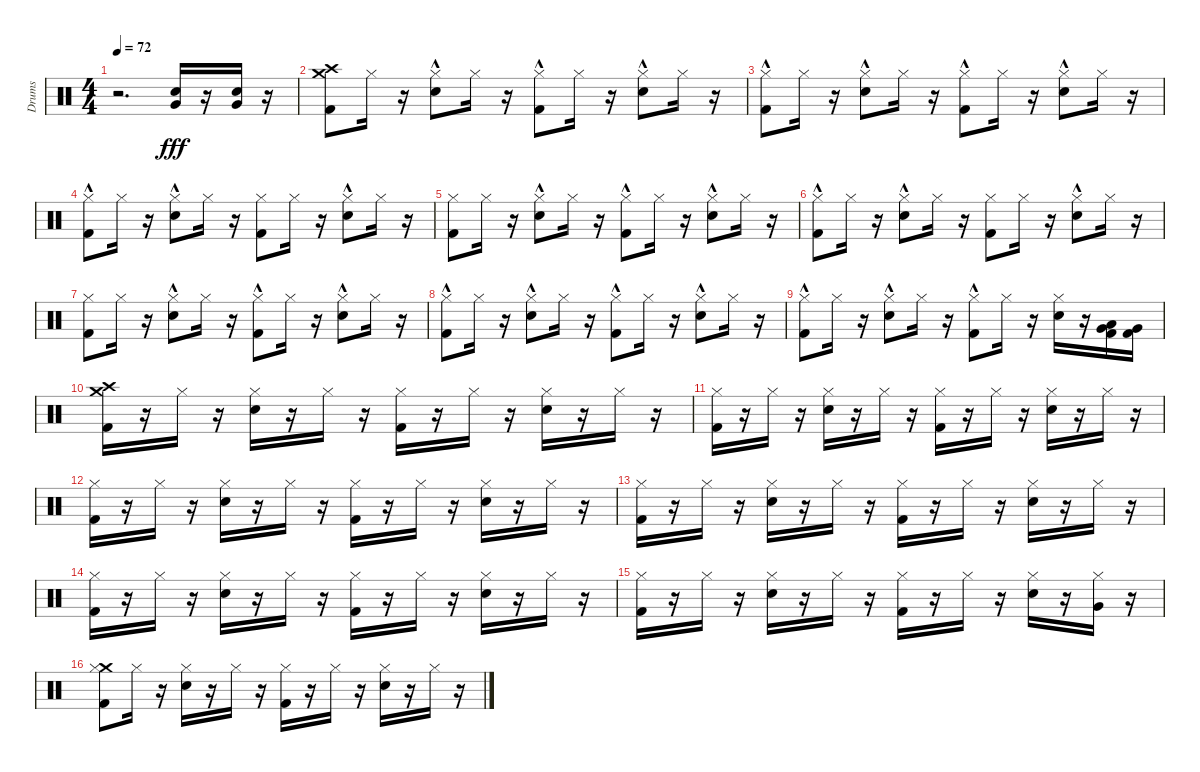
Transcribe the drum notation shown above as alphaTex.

\track ("Drums" "Drums") {instrument percussion}
\staff {score}
\articulation defaults
\ts (4 4)
\tempo 72
\clef neutral
\ks c
r.2{d dy fff} ("Very Low Tom (hit)" "Snare (hit) 2").16 r.16 ("Very Low Tom (hit)" "Snare (hit) 2").16 r.16 |
("Crash high (hit)" "Kick (hit) 2" "Crash medium (hit)").8 "Hi-Hat (closed)".16 r.16 ("Hi-Hat (closed)" "Snare (hit) 2"{hac}).8 "Hi-Hat (closed)".16 r.16 ("Kick (hit) 2"{hac} "Hi-Hat (closed)").8 "Hi-Hat (closed)".16 r.16 ("Snare (hit) 2"{hac} "Hi-Hat (closed)").8 "Hi-Hat (closed)".16 r.16 |
("Hi-Hat (closed)" "Kick (hit) 2"{hac}).8 "Hi-Hat (closed)".16 r.16 ("Hi-Hat (closed)" "Snare (hit) 2"{hac}).8 "Hi-Hat (closed)".16 r.16 ("Kick (hit) 2"{hac} "Hi-Hat (closed)").8 "Hi-Hat (closed)".16 r.16 ("Snare (hit) 2"{hac} "Hi-Hat (closed)").8 "Hi-Hat (closed)".16 r.16 |
("Hi-Hat (closed)" "Kick (hit) 2"{hac}).8 "Hi-Hat (closed)".16 r.16 ("Snare (hit) 2"{hac} "Hi-Hat (closed)").8 "Hi-Hat (closed)".16 r.16 ("Hi-Hat (closed)" "Kick (hit) 2").8 "Hi-Hat (closed)".16 r.16 ("Snare (hit) 2"{hac} "Hi-Hat (closed)").8 "Hi-Hat (closed)".16 r.16 |
("Hi-Hat (closed)" "Kick (hit) 2").8 "Hi-Hat (closed)".16 r.16 ("Hi-Hat (closed)" "Snare (hit) 2"{hac}).8 "Hi-Hat (closed)".16 r.16 ("Hi-Hat (closed)" "Kick (hit) 2"{hac}).8 "Hi-Hat (closed)".16 r.16 ("Hi-Hat (closed)" "Snare (hit) 2"{hac}).8 "Hi-Hat (closed)".16 r.16 |
("Kick (hit) 2"{hac} "Hi-Hat (closed)").8 "Hi-Hat (closed)".16 r.16 ("Hi-Hat (closed)" "Snare (hit) 2"{hac}).8 "Hi-Hat (closed)".16 r.16 ("Kick (hit) 2" "Hi-Hat (closed)").8 "Hi-Hat (closed)".16 r.16 ("Snare (hit) 2"{hac} "Hi-Hat (closed)").8 "Hi-Hat (closed)".16 r.16 |
("Hi-Hat (closed)" "Kick (hit) 2").8 "Hi-Hat (closed)".16 r.16 ("Snare (hit) 2"{hac} "Hi-Hat (closed)").8 "Hi-Hat (closed)".16 r.16 ("Hi-Hat (closed)" "Kick (hit) 2"{hac}).8 "Hi-Hat (closed)".16 r.16 ("Hi-Hat (closed)" "Snare (hit) 2"{hac}).8 "Hi-Hat (closed)".16 r.16 |
("Kick (hit) 2"{hac} "Hi-Hat (closed)").8 "Hi-Hat (closed)".16 r.16 ("Hi-Hat (closed)" "Snare (hit) 2"{hac}).8 "Hi-Hat (closed)".16 r.16 ("Hi-Hat (closed)" "Kick (hit) 2"{hac}).8 "Hi-Hat (closed)".16 r.16 ("Hi-Hat (closed)" "Snare (hit) 2"{hac}).8 "Hi-Hat (closed)".16 r.16 |
("Hi-Hat (closed)" "Kick (hit) 2"{hac}).8 "Hi-Hat (closed)".16 r.16 ("Hi-Hat (closed)" "Snare (hit) 2"{hac}).8 "Hi-Hat (closed)".16 r.16 ("Hi-Hat (closed)" "Kick (hit) 2"{hac}).8 "Hi-Hat (closed)".16 r.16 ("Hi-Hat (closed)" "Snare (hit) 2").16 r.16 ("Kick (hit) 2" "Low Floor Tom (hit)" "Very Low Tom (hit)").16 ("Kick (hit) 2" "Very Low Tom (hit)").16 |
("Crash medium (hit)" "Crash high (hit)" "Kick (hit) 2").16 r.16 "Hi-Hat (closed)".16 r.16 ("Hi-Hat (closed)" "Snare (hit) 2").16 r.16 "Hi-Hat (closed)".16 r.16 ("Hi-Hat (closed)" "Kick (hit) 2").16 r.16 "Hi-Hat (closed)".16 r.16 ("Snare (hit) 2" "Hi-Hat (closed)").16 r.16 "Hi-Hat (closed)".16 r.16 |
("Kick (hit) 2" "Hi-Hat (closed)").16 r.16 "Hi-Hat (closed)".16 r.16 ("Snare (hit) 2" "Hi-Hat (closed)").16 r.16 "Hi-Hat (closed)".16 r.16 ("Kick (hit) 2" "Hi-Hat (closed)").16 r.16 "Hi-Hat (closed)".16 r.16 ("Snare (hit) 2" "Hi-Hat (closed)").16 r.16 "Hi-Hat (closed)".16 r.16 |
("Kick (hit) 2" "Hi-Hat (closed)").16 r.16 "Hi-Hat (closed)".16 r.16 ("Hi-Hat (closed)" "Snare (hit) 2").16 r.16 "Hi-Hat (closed)".16 r.16 ("Hi-Hat (closed)" "Kick (hit) 2").16 r.16 "Hi-Hat (closed)".16 r.16 ("Hi-Hat (closed)" "Snare (hit) 2").16 r.16 "Hi-Hat (closed)".16 r.16 |
("Kick (hit) 2" "Hi-Hat (closed)").16 r.16 "Hi-Hat (closed)".16 r.16 ("Snare (hit) 2" "Hi-Hat (closed)").16 r.16 "Hi-Hat (closed)".16 r.16 ("Hi-Hat (closed)" "Kick (hit) 2").16 r.16 "Hi-Hat (closed)".16 r.16 ("Snare (hit) 2" "Hi-Hat (closed)").16 r.16 "Hi-Hat (closed)".16 r.16 |
("Kick (hit) 2" "Hi-Hat (closed)").16 r.16 "Hi-Hat (closed)".16 r.16 ("Snare (hit) 2" "Hi-Hat (closed)").16 r.16 "Hi-Hat (closed)".16 r.16 ("Hi-Hat (closed)" "Kick (hit) 2").16 r.16 "Hi-Hat (closed)".16 r.16 ("Hi-Hat (closed)" "Snare (hit) 2").16 r.16 "Hi-Hat (closed)".16 r.16 |
("Hi-Hat (closed)" "Kick (hit) 2").16 r.16 "Hi-Hat (closed)".16 r.16 ("Hi-Hat (closed)" "Snare (hit) 2").16 r.16 "Hi-Hat (closed)".16 r.16 ("Kick (hit) 2" "Hi-Hat (closed)").16 r.16 "Hi-Hat (closed)".16 r.16 ("Snare (hit) 2" "Hi-Hat (closed)").16 r.16 ("Very Low Tom (hit)" "Hi-Hat (closed)").16 r.16 |
("Crash medium (hit)" "Hi-Hat (closed)" "Kick (hit) 2").8 "Hi-Hat (closed)".16 r.16 ("Hi-Hat (closed)" "Snare (hit) 2").16 r.16 "Hi-Hat (closed)".16 r.16 ("Hi-Hat (closed)" "Kick (hit) 2").16 r.16 "Hi-Hat (closed)".16 r.16 ("Snare (hit) 2" "Hi-Hat (closed)").16 r.16 "Hi-Hat (closed)".16 r.16
